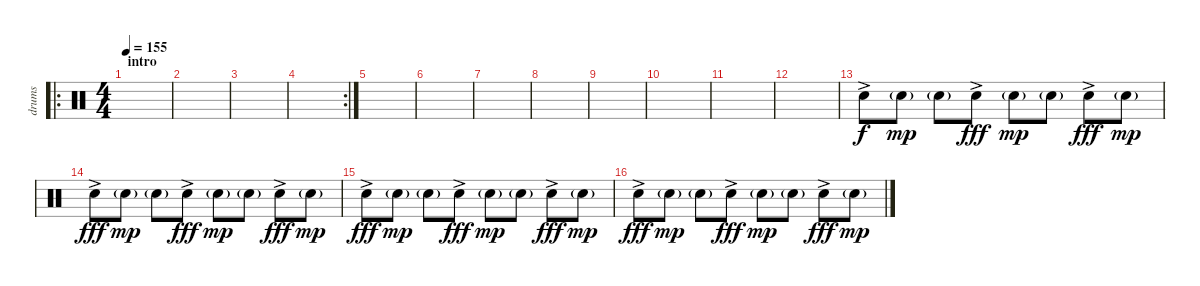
\track ("drums" "drums") {instrument percussion}
\staff {score}
\articulation defaults
\ro
\ts (4 4)
\section ("" "intro")
\tempo 155
\clef neutral
\ks c
|
|
|
\rc 2
|
|
|
|
|
|
|
|
|
"Electric Snare (hit)"{ac}.8 "Electric Snare (hit)"{g}.8{dy mp} "Electric Snare (hit)"{g}.8 "Electric Snare (hit)"{ac}.8{dy fff} "Electric Snare (hit)"{g}.8{dy mp} "Electric Snare (hit)"{g}.8 "Electric Snare (hit)"{ac}.8{dy fff} "Electric Snare (hit)"{g}.8{dy mp} |
"Electric Snare (hit)"{ac}.8{dy fff} "Electric Snare (hit)"{g}.8{dy mp} "Electric Snare (hit)"{g}.8 "Electric Snare (hit)"{ac}.8{dy fff} "Electric Snare (hit)"{g}.8{dy mp} "Electric Snare (hit)"{g}.8 "Electric Snare (hit)"{ac}.8{dy fff} "Electric Snare (hit)"{g}.8{dy mp} |
"Electric Snare (hit)"{ac}.8{dy fff} "Electric Snare (hit)"{g}.8{dy mp} "Electric Snare (hit)"{g}.8 "Electric Snare (hit)"{ac}.8{dy fff} "Electric Snare (hit)"{g}.8{dy mp} "Electric Snare (hit)"{g}.8 "Electric Snare (hit)"{ac}.8{dy fff} "Electric Snare (hit)"{g}.8{dy mp} |
"Electric Snare (hit)"{ac}.8{dy fff} "Electric Snare (hit)"{g}.8{dy mp} "Electric Snare (hit)"{g}.8 "Electric Snare (hit)"{ac}.8{dy fff} "Electric Snare (hit)"{g}.8{dy mp} "Electric Snare (hit)"{g}.8 "Electric Snare (hit)"{ac}.8{dy fff} "Electric Snare (hit)"{g}.8{dy mp}
